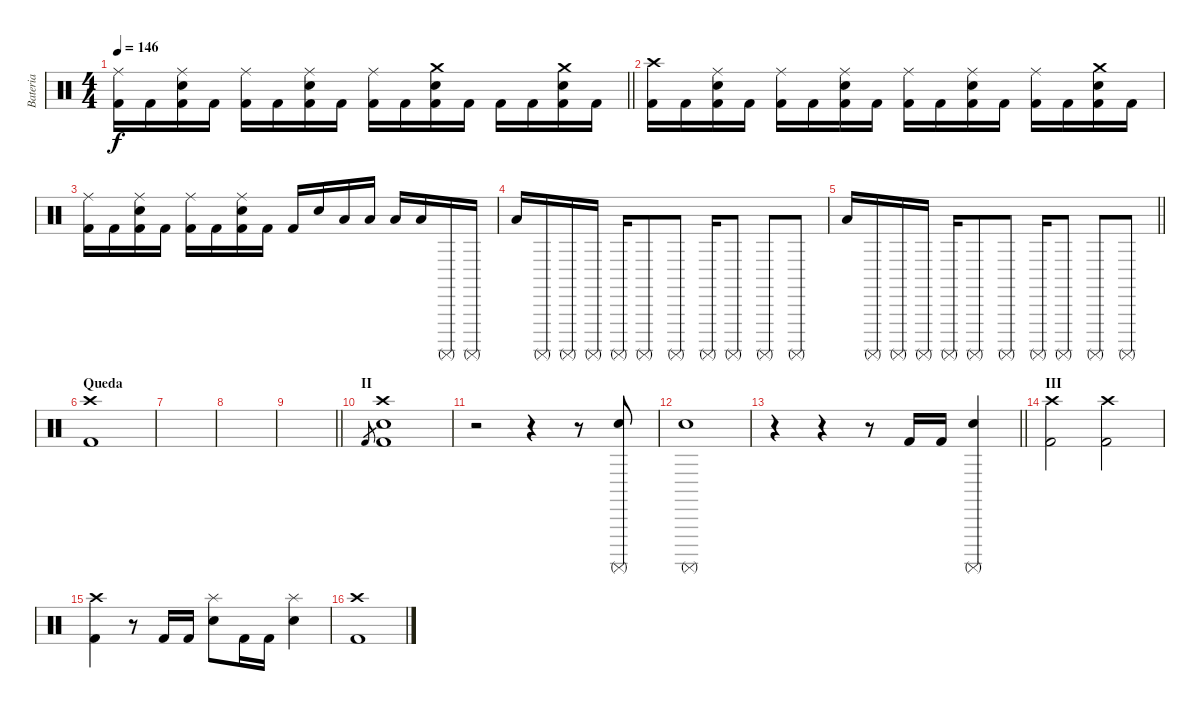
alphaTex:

\track ("Bateria" "Bateria") {instrument percussion}
\staff {score}
\articulation defaults
\ts (4 4)
\tempo 146
\clef neutral
\barLineRight lightlight
\ks c
("Kick (hit) 2" "Ride (middle)").16{dy f} "Kick (hit) 2".16 ("Kick (hit) 2" "Electric Snare (hit)" "Ride (middle)").16 "Kick (hit) 2".16 ("Kick (hit) 2" "Ride (middle)").16 "Kick (hit) 2".16 ("Kick (hit) 2" "Electric Snare (hit)" "Ride (middle)").16 "Kick (hit) 2".16 ("Kick (hit) 2" "Ride (middle)").16 "Kick (hit) 2".16 ("Kick (hit) 2" "Electric Snare (hit)" "Crash medium (hit)").16 "Kick (hit) 2".16 "Kick (hit) 2".16 "Kick (hit) 2".16 ("Kick (hit) 2" "Electric Snare (hit)" "Crash medium (hit)").16 "Kick (hit) 2".16 |
("Kick (hit) 2" "Crash high (hit)").16 "Kick (hit) 2".16 ("Kick (hit) 2" "Electric Snare (hit)" "Ride (middle)").16 "Kick (hit) 2".16 ("Kick (hit) 2" "Ride (middle)").16 "Kick (hit) 2".16 ("Kick (hit) 2" "Electric Snare (hit)" "Ride (middle)").16 "Kick (hit) 2".16 ("Kick (hit) 2" "Ride (middle)").16 "Kick (hit) 2".16 ("Kick (hit) 2" "Electric Snare (hit)" "Ride (middle)").16 "Kick (hit) 2".16 ("Kick (hit) 2" "Ride (middle)").16 "Kick (hit) 2".16 ("Kick (hit) 2" "Electric Snare (hit)" "Crash medium (hit)").16 "Kick (hit) 2".16 |
("Kick (hit) 2" "Ride (middle)").16 "Kick (hit) 2".16 ("Kick (hit) 2" "Electric Snare (hit)" "Ride (middle)").16 "Kick (hit) 2".16 ("Kick (hit) 2" "Ride (middle)").16 "Kick (hit) 2".16 ("Kick (hit) 2" "Electric Snare (hit)" "Ride (middle)").16 "Kick (hit) 2".16 "Kick (hit) 2".16 "Electric Snare (hit)".16 "Low Tom (hit)".16 "Low Tom (hit)".16 "Low Floor Tom (hit)".16 "Low Floor Tom (hit)".16 "Surdo (mute)".16 "Surdo (mute)".16 |
"Low Tom (hit)".16 "Surdo (mute)".16 "Surdo (mute)".16 "Surdo (mute)".16 "Surdo (mute)".16 "Surdo (mute)".8 "Surdo (mute)".8 "Surdo (mute)".16 "Surdo (mute)".8 "Surdo (mute)".8 "Surdo (mute)".8 |
\barLineRight lightlight "Low Tom (hit)".16 "Surdo (mute)".16 "Surdo (mute)".16 "Surdo (mute)".16 "Surdo (mute)".16 "Surdo (mute)".8 "Surdo (mute)".8 "Surdo (mute)".16 "Surdo (mute)".8 "Surdo (mute)".8 "Surdo (mute)".8
|
\section ("" "Queda")
("Kick (hit) 2" "Crash high (hit)").1 |
|
|
\barLineRight lightlight
|
\section ("" "II")
"Kick (hit) 2".8{gr} ("Kick (hit) 2" "Electric Snare (hit)" "Crash high (hit)").1 |
r.2 r.4 r.8 ("Electric Snare (hit)" "Surdo (mute)").8 |
("Electric Snare (hit)" "Surdo (mute)").1 |
\barLineRight lightlight
r.4 r.4 r.8 "Kick (hit) 2".16 "Kick (hit) 2".16 ("Electric Snare (hit)" "Surdo (mute)").4 |
\section ("" "III")
("Kick (hit) 2" "Crash high (hit)").2 ("Kick (hit) 2" "Crash high (hit)").2 |
("Kick (hit) 2" "Crash high (hit)").4 r.8 "Kick (hit) 2".16 "Kick (hit) 2".16 ("Electric Snare (hit)" "Splash (hit)").8 "Kick (hit) 2".16 "Kick (hit) 2".16 ("Electric Snare (hit)" "Splash (hit)").4 |
("Kick (hit) 2" "Crash high (hit)").1
